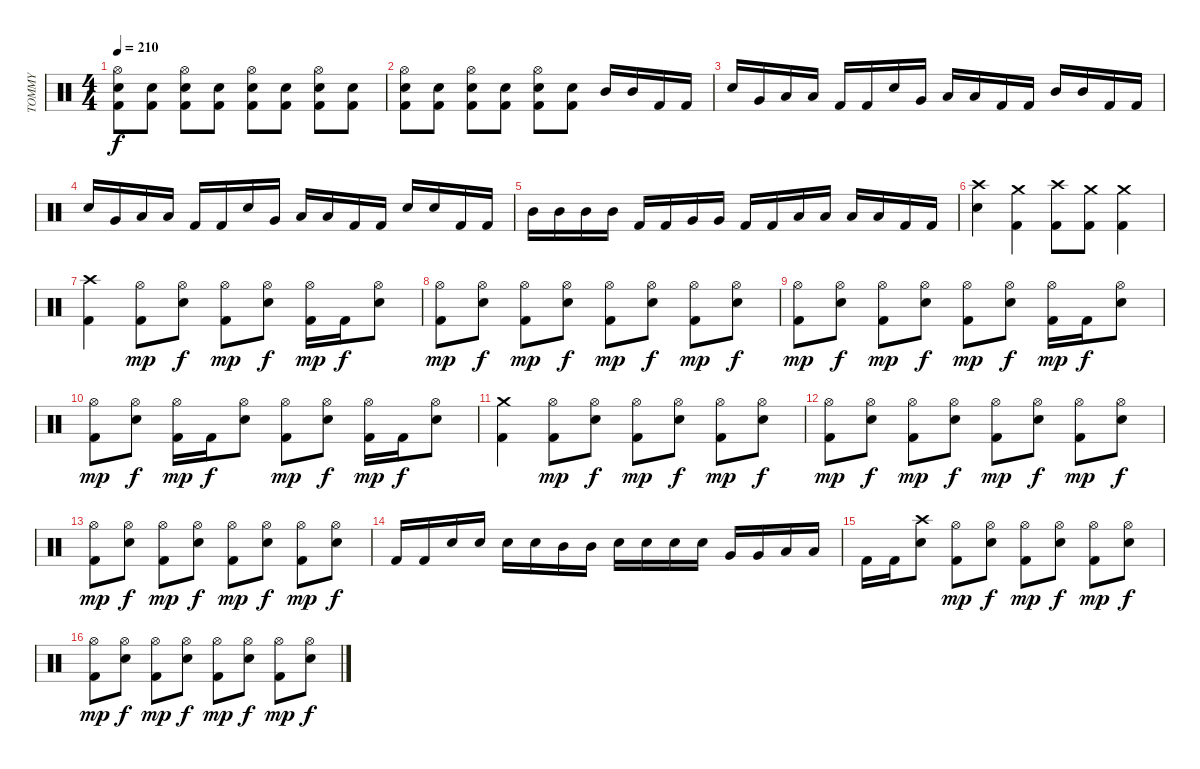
\track ("TOMMY" "TOMMY") {instrument percussion}
\staff {score}
\articulation defaults
\ts (4 4)
\tempo 210
\clef neutral
\ks c
("Snare (hit) 2" "Kick (hit) 2" "Hi-Hat (open)").8{dy f} ("Snare (hit) 2" "Kick (hit) 2").8 ("Snare (hit) 2" "Kick (hit) 2" "Hi-Hat (open)").8 ("Snare (hit) 2" "Kick (hit) 2").8 ("Snare (hit) 2" "Kick (hit) 2" "Hi-Hat (open)").8 ("Snare (hit) 2" "Kick (hit) 2").8 ("Snare (hit) 2" "Kick (hit) 2" "Hi-Hat (open)").8 ("Snare (hit) 2" "Kick (hit) 2").8 |
("Snare (hit) 2" "Kick (hit) 2" "Hi-Hat (open)").8 ("Snare (hit) 2" "Kick (hit) 2").8 ("Snare (hit) 2" "Kick (hit) 2" "Hi-Hat (open)").8 ("Snare (hit) 2" "Kick (hit) 2").8 ("Snare (hit) 2" "Kick (hit) 2" "Hi-Hat (open)").8 ("Snare (hit) 2" "Kick (hit) 2").8 "Mid Tom (hit)".16 "Mid Tom (hit)".16 "Kick (hit) 2".16 "Kick (hit) 2".16 |
"Snare (hit) 2".16 "Very Low Tom (hit)".16 "Low Floor Tom (hit)".16 "Low Floor Tom (hit)".16 "Kick (hit) 2".16 "Kick (hit) 2".16 "Snare (hit) 2".16 "Very Low Tom (hit)".16 "Low Floor Tom (hit)".16 "Low Floor Tom (hit)".16 "Kick (hit) 2".16 "Kick (hit) 2".16 "Mid Tom (hit)".16 "Mid Tom (hit)".16 "Kick (hit) 2".16 "Kick (hit) 2".16 |
"Snare (hit) 2".16 "Very Low Tom (hit)".16 "Low Floor Tom (hit)".16 "Low Floor Tom (hit)".16 "Kick (hit) 2".16 "Kick (hit) 2".16 "Snare (hit) 2".16 "Very Low Tom (hit)".16 "Low Floor Tom (hit)".16 "Low Floor Tom (hit)".16 "Kick (hit) 2".16 "Kick (hit) 2".16 "Snare (hit) 2".16 "Snare (hit) 2".16 "Kick (hit) 2".16 "Kick (hit) 2".16 |
"Mid Tom (hit)".16 "Mid Tom (hit)".16 "Mid Tom (hit)".16 "Mid Tom (hit)".16 "Kick (hit) 2".16 "Kick (hit) 2".16 "Very Low Tom (hit)".16 "Very Low Tom (hit)".16 "Kick (hit) 2".16 "Kick (hit) 2".16 "Low Floor Tom (hit)".16 "Low Floor Tom (hit)".16 "Low Floor Tom (hit)".16 "Low Floor Tom (hit)".16 "Kick (hit) 2".16 "Kick (hit) 2".16 |
("Snare (hit) 2" "Crash high (hit)").4 ("Kick (hit) 2" "Crash medium (hit)").4 ("Kick (hit) 2" "Crash high (hit)").8 ("Kick (hit) 2" "Crash medium (hit)").8 ("Kick (hit) 2" "Crash medium (hit)").4 |
("Kick (hit) 2" "Crash high (hit)").4 ("Kick (hit) 2" "Hi-Hat (open)").8{dy mp} ("Snare (hit) 2" "Hi-Hat (open)").8{dy f} ("Kick (hit) 2" "Hi-Hat (open)").8{dy mp} ("Snare (hit) 2" "Hi-Hat (open)").8{dy f} ("Kick (hit) 2" "Hi-Hat (open)").16{dy mp} "Kick (hit) 2".16{dy f} ("Snare (hit) 2" "Hi-Hat (open)").8 |
("Kick (hit) 2" "Hi-Hat (open)").8{dy mp} ("Snare (hit) 2" "Hi-Hat (open)").8{dy f} ("Kick (hit) 2" "Hi-Hat (open)").8{dy mp} ("Snare (hit) 2" "Hi-Hat (open)").8{dy f} ("Kick (hit) 2" "Hi-Hat (open)").8{dy mp} ("Snare (hit) 2" "Hi-Hat (open)").8{dy f} ("Kick (hit) 2" "Hi-Hat (open)").8{dy mp} ("Snare (hit) 2" "Hi-Hat (open)").8{dy f} |
("Kick (hit) 2" "Hi-Hat (open)").8{dy mp} ("Snare (hit) 2" "Hi-Hat (open)").8{dy f} ("Kick (hit) 2" "Hi-Hat (open)").8{dy mp} ("Snare (hit) 2" "Hi-Hat (open)").8{dy f} ("Kick (hit) 2" "Hi-Hat (open)").8{dy mp} ("Snare (hit) 2" "Hi-Hat (open)").8{dy f} ("Kick (hit) 2" "Hi-Hat (open)").16{dy mp} "Kick (hit) 2".16{dy f} ("Snare (hit) 2" "Hi-Hat (open)").8 |
("Kick (hit) 2" "Hi-Hat (open)").8{dy mp} ("Snare (hit) 2" "Hi-Hat (open)").8{dy f} ("Kick (hit) 2" "Hi-Hat (open)").16{dy mp} "Kick (hit) 2".16{dy f} ("Snare (hit) 2" "Hi-Hat (open)").8 ("Kick (hit) 2" "Hi-Hat (open)").8{dy mp} ("Snare (hit) 2" "Hi-Hat (open)").8{dy f} ("Kick (hit) 2" "Hi-Hat (open)").16{dy mp} "Kick (hit) 2".16{dy f} ("Snare (hit) 2" "Hi-Hat (open)").8 |
("Kick (hit) 2" "Crash medium (hit)").4 ("Kick (hit) 2" "Hi-Hat (open)").8{dy mp} ("Snare (hit) 2" "Hi-Hat (open)").8{dy f} ("Kick (hit) 2" "Hi-Hat (open)").8{dy mp} ("Snare (hit) 2" "Hi-Hat (open)").8{dy f} ("Kick (hit) 2" "Hi-Hat (open)").8{dy mp} ("Snare (hit) 2" "Hi-Hat (open)").8{dy f} |
("Kick (hit) 2" "Hi-Hat (open)").8{dy mp} ("Snare (hit) 2" "Hi-Hat (open)").8{dy f} ("Kick (hit) 2" "Hi-Hat (open)").8{dy mp} ("Snare (hit) 2" "Hi-Hat (open)").8{dy f} ("Kick (hit) 2" "Hi-Hat (open)").8{dy mp} ("Snare (hit) 2" "Hi-Hat (open)").8{dy f} ("Kick (hit) 2" "Hi-Hat (open)").8{dy mp} ("Snare (hit) 2" "Hi-Hat (open)").8{dy f} |
("Kick (hit) 2" "Hi-Hat (open)").8{dy mp} ("Snare (hit) 2" "Hi-Hat (open)").8{dy f} ("Kick (hit) 2" "Hi-Hat (open)").8{dy mp} ("Snare (hit) 2" "Hi-Hat (open)").8{dy f} ("Kick (hit) 2" "Hi-Hat (open)").8{dy mp} ("Snare (hit) 2" "Hi-Hat (open)").8{dy f} ("Kick (hit) 2" "Hi-Hat (open)").8{dy mp} ("Snare (hit) 2" "Hi-Hat (open)").8{dy f} |
"Kick (hit) 2".16 "Kick (hit) 2".16 "Snare (hit) 2".16 "Snare (hit) 2".16 "Snare (hit) 2".16 "Snare (hit) 2".16 "Mid Tom (hit)".16 "Mid Tom (hit)".16 "Snare (hit) 2".16 "Snare (hit) 2".16 "Snare (hit) 2".16 "Snare (hit) 2".16 "Very Low Tom (hit)".16 "Very Low Tom (hit)".16 "Low Floor Tom (hit)".16 "Low Floor Tom (hit)".16 |
"Kick (hit) 2".16 "Kick (hit) 2".16 ("Snare (hit) 2" "Crash high (hit)").8 ("Kick (hit) 2" "Hi-Hat (open)").8{dy mp} ("Snare (hit) 2" "Hi-Hat (open)").8{dy f} ("Kick (hit) 2" "Hi-Hat (open)").8{dy mp} ("Snare (hit) 2" "Hi-Hat (open)").8{dy f} ("Kick (hit) 2" "Hi-Hat (open)").8{dy mp} ("Snare (hit) 2" "Hi-Hat (open)").8{dy f} |
("Kick (hit) 2" "Hi-Hat (open)").8{dy mp} ("Snare (hit) 2" "Hi-Hat (open)").8{dy f} ("Kick (hit) 2" "Hi-Hat (open)").8{dy mp} ("Snare (hit) 2" "Hi-Hat (open)").8{dy f} ("Kick (hit) 2" "Hi-Hat (open)").8{dy mp} ("Snare (hit) 2" "Hi-Hat (open)").8{dy f} ("Kick (hit) 2" "Hi-Hat (open)").8{dy mp} ("Snare (hit) 2" "Hi-Hat (open)").8{dy f}
